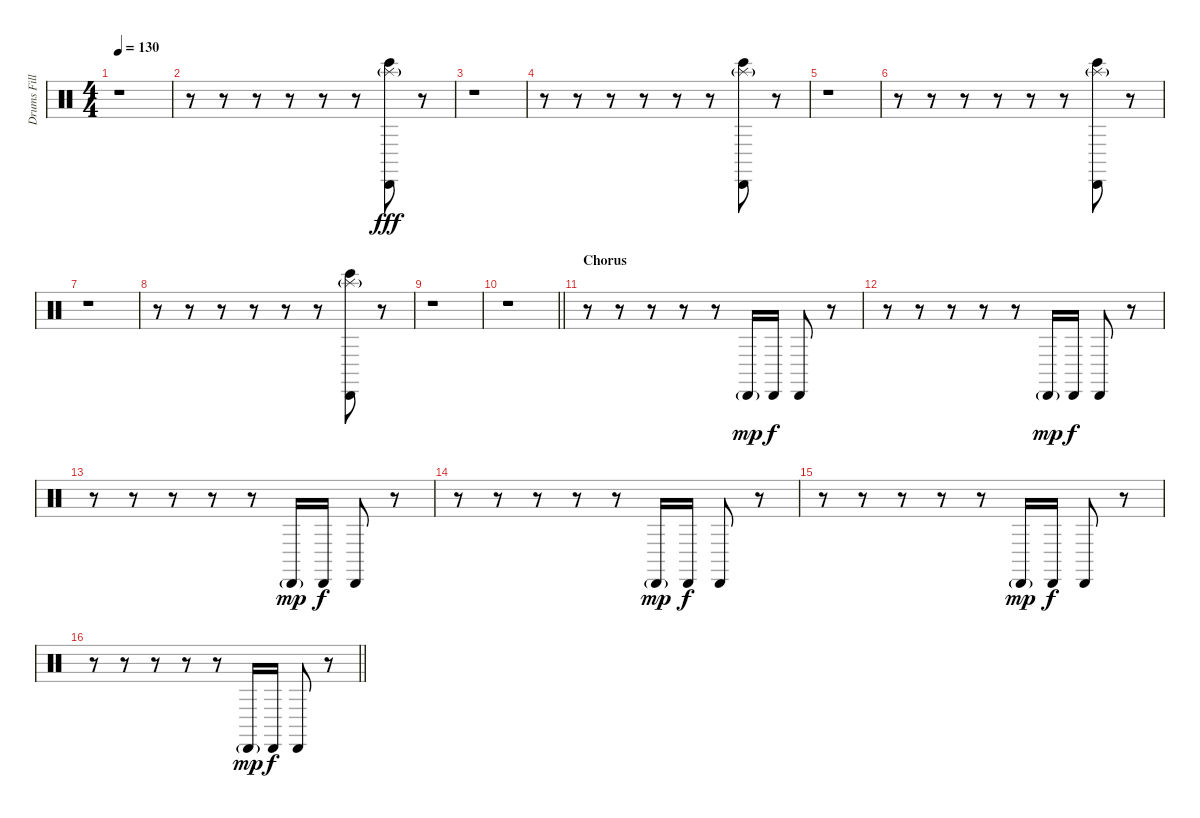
\track ("Drums Fill" "Drums Fill") {instrument percussion}
\staff {score}
\articulation defaults
\ts (4 4)
\tempo 130
\clef neutral
\ks c
r.1{dy fff} |
r.8 r.8 r.8 r.8 r.8 r.8 ("Splash (hit)"{g} "Cabasa (hit)" "Bongo High (hit)").8 r.8 |
r.1 |
r.8 r.8 r.8 r.8 r.8 r.8 ("Splash (hit)"{g} "Cabasa (hit)" "Bongo High (hit)").8 r.8 |
r.1 |
r.8 r.8 r.8 r.8 r.8 r.8 ("Splash (hit)"{g} "Cabasa (hit)" "Bongo High (hit)").8 r.8 |
r.1 |
r.8 r.8 r.8 r.8 r.8 r.8 ("Splash (hit)"{g} "Cabasa (hit)" "Bongo High (hit)").8 r.8 |
r.1 |
\barLineRight lightlight
r.1 |
\section ("" "Chorus")
r.8 r.8 r.8 r.8 r.8 "Cabasa (hit)"{g}.16{dy mp} "Cabasa (hit)".16{dy f} "Cabasa (hit)".8 r.8 |
r.8 r.8 r.8 r.8 r.8 "Cabasa (hit)"{g}.16{dy mp} "Cabasa (hit)".16{dy f} "Cabasa (hit)".8 r.8 |
r.8 r.8 r.8 r.8 r.8 "Cabasa (hit)"{g}.16{dy mp} "Cabasa (hit)".16{dy f} "Cabasa (hit)".8 r.8 |
r.8 r.8 r.8 r.8 r.8 "Cabasa (hit)"{g}.16{dy mp} "Cabasa (hit)".16{dy f} "Cabasa (hit)".8 r.8 |
r.8 r.8 r.8 r.8 r.8 "Cabasa (hit)"{g}.16{dy mp} "Cabasa (hit)".16{dy f} "Cabasa (hit)".8 r.8 |
\barLineRight lightlight
r.8 r.8 r.8 r.8 r.8 "Cabasa (hit)"{g}.16{dy mp} "Cabasa (hit)".16{dy f} "Cabasa (hit)".8 r.8
